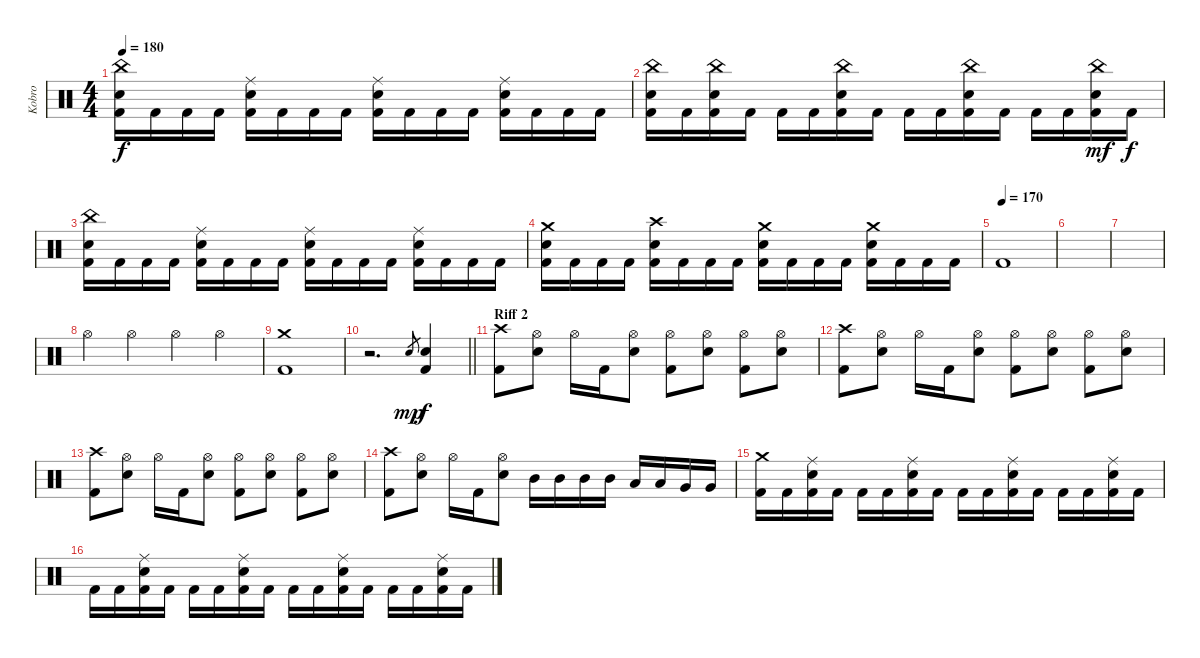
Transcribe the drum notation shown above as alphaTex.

\track ("Kobro" "Kobro") {instrument percussion}
\staff {score}
\articulation defaults
\ts (4 4)
\tempo 180
\clef neutral
\ks c
("China (hit)" "Electric Snare (hit)" "Kick (hit) 2").16{dy f} "Kick (hit) 2".16 "Kick (hit) 2".16 "Kick (hit) 2".16 ("Ride (middle)" "Electric Snare (hit)" "Kick (hit) 2").16 "Kick (hit) 2".16 "Kick (hit) 2".16 "Kick (hit) 2".16 ("Ride (middle)" "Electric Snare (hit)" "Kick (hit) 2").16 "Kick (hit) 2".16 "Kick (hit) 2".16 "Kick (hit) 2".16 ("Ride (middle)" "Electric Snare (hit)" "Kick (hit) 2").16 "Kick (hit) 2".16 "Kick (hit) 2".16 "Kick (hit) 2".16 |
("China (hit)" "Electric Snare (hit)" "Kick (hit) 2").16 "Kick (hit) 2".16 ("China (hit)" "Electric Snare (hit)" "Kick (hit) 2").16 "Kick (hit) 2".16 "Kick (hit) 2".16 "Kick (hit) 2".16 ("China (hit)" "Electric Snare (hit)" "Kick (hit) 2").16 "Kick (hit) 2".16 "Kick (hit) 2".16 "Kick (hit) 2".16 ("China (hit)" "Electric Snare (hit)" "Kick (hit) 2").16 "Kick (hit) 2".16 "Kick (hit) 2".16 "Kick (hit) 2".16 ("China (hit)" "Electric Snare (hit)" "Kick (hit) 2").16{dy mf} "Kick (hit) 2".16{dy f} |
("China (hit)" "Electric Snare (hit)" "Kick (hit) 2").16 "Kick (hit) 2".16 "Kick (hit) 2".16 "Kick (hit) 2".16 ("Ride (middle)" "Electric Snare (hit)" "Kick (hit) 2").16 "Kick (hit) 2".16 "Kick (hit) 2".16 "Kick (hit) 2".16 ("Ride (middle)" "Electric Snare (hit)" "Kick (hit) 2").16 "Kick (hit) 2".16 "Kick (hit) 2".16 "Kick (hit) 2".16 ("Ride (middle)" "Electric Snare (hit)" "Kick (hit) 2").16 "Kick (hit) 2".16 "Kick (hit) 2".16 "Kick (hit) 2".16 |
("Crash medium (hit)" "Electric Snare (hit)" "Kick (hit) 2").16 "Kick (hit) 2".16 "Kick (hit) 2".16 "Kick (hit) 2".16 ("Crash high (hit)" "Electric Snare (hit)" "Kick (hit) 2").16 "Kick (hit) 2".16 "Kick (hit) 2".16 "Kick (hit) 2".16 ("Crash medium (hit)" "Electric Snare (hit)" "Kick (hit) 2").16 "Kick (hit) 2".16 "Kick (hit) 2".16 "Kick (hit) 2".16 ("Crash medium (hit)" "Electric Snare (hit)" "Kick (hit) 2").16 "Kick (hit) 2".16 "Kick (hit) 2".16 "Kick (hit) 2".16 |
\tempo (170)
"Kick (hit) 2".1 |
|
|
"Hi-Hat (open)".4 "Hi-Hat (open)".4 "Hi-Hat (open)".4 "Hi-Hat (open)".4 |
("Crash medium (hit)" "Kick (hit) 2").1 |
\barLineRight lightlight
r.2{d} "Electric Snare (hit)".8{gr dy mp} ("Kick (hit) 2" "Electric Snare (hit)").4{dy f} |
\section ("" "Riff 2")
("Crash high (hit)" "Kick (hit) 2").8 ("Hi-Hat (open)" "Electric Snare (hit)").8 "Hi-Hat (open)".16 "Kick (hit) 2".16 ("Hi-Hat (open)" "Electric Snare (hit)").8 ("Hi-Hat (open)" "Kick (hit) 2").8 ("Hi-Hat (open)" "Electric Snare (hit)").8 ("Hi-Hat (open)" "Kick (hit) 2").8 ("Hi-Hat (open)" "Electric Snare (hit)").8 |
("Crash high (hit)" "Kick (hit) 2").8 ("Hi-Hat (open)" "Electric Snare (hit)").8 "Hi-Hat (open)".16 "Kick (hit) 2".16 ("Hi-Hat (open)" "Electric Snare (hit)").8 ("Hi-Hat (open)" "Kick (hit) 2").8 ("Hi-Hat (open)" "Electric Snare (hit)").8 ("Hi-Hat (open)" "Kick (hit) 2").8 ("Hi-Hat (open)" "Electric Snare (hit)").8 |
("Crash high (hit)" "Kick (hit) 2").8 ("Hi-Hat (open)" "Electric Snare (hit)").8 "Hi-Hat (open)".16 "Kick (hit) 2".16 ("Hi-Hat (open)" "Electric Snare (hit)").8 ("Hi-Hat (open)" "Kick (hit) 2").8 ("Hi-Hat (open)" "Electric Snare (hit)").8 ("Hi-Hat (open)" "Kick (hit) 2").8 ("Hi-Hat (open)" "Electric Snare (hit)").8 |
("Crash high (hit)" "Kick (hit) 2").8 ("Hi-Hat (open)" "Electric Snare (hit)").8 "Hi-Hat (open)".16 "Kick (hit) 2".16 ("Hi-Hat (open)" "Electric Snare (hit)").8 "Mid Tom (hit)".16 "Mid Tom (hit)".16 "Mid Tom (hit)".16 "Mid Tom (hit)".16 "Low Tom (hit)".16 "Low Tom (hit)".16 "Very Low Tom (hit)".16 "Very Low Tom (hit)".16 |
("Crash medium (hit)" "Kick (hit) 2").16 "Kick (hit) 2".16 ("Ride (middle)" "Electric Snare (hit)" "Kick (hit) 2").16 "Kick (hit) 2".16 "Kick (hit) 2".16 "Kick (hit) 2".16 ("Ride (middle)" "Electric Snare (hit)" "Kick (hit) 2").16 "Kick (hit) 2".16 "Kick (hit) 2".16 "Kick (hit) 2".16 ("Ride (middle)" "Electric Snare (hit)" "Kick (hit) 2").16 "Kick (hit) 2".16 "Kick (hit) 2".16 "Kick (hit) 2".16 ("Ride (middle)" "Electric Snare (hit)" "Kick (hit) 2").16 "Kick (hit) 2".16 |
"Kick (hit) 2".16 "Kick (hit) 2".16 ("Ride (middle)" "Electric Snare (hit)" "Kick (hit) 2").16 "Kick (hit) 2".16 "Kick (hit) 2".16 "Kick (hit) 2".16 ("Ride (middle)" "Electric Snare (hit)" "Kick (hit) 2").16 "Kick (hit) 2".16 "Kick (hit) 2".16 "Kick (hit) 2".16 ("Ride (middle)" "Electric Snare (hit)" "Kick (hit) 2").16 "Kick (hit) 2".16 "Kick (hit) 2".16 "Kick (hit) 2".16 ("Ride (middle)" "Electric Snare (hit)" "Kick (hit) 2").16 "Kick (hit) 2".16
